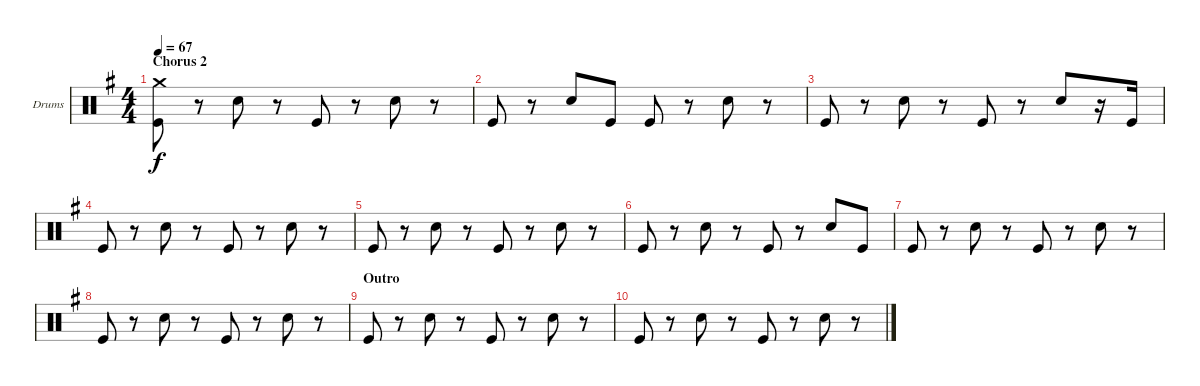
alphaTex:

\bracketExtendMode groupsimilarinstruments
\firstSystemTrackNameOrientation horizontal
\otherSystemsTrackNameOrientation horizontal
\track ("Drumkit" "Drums") {instrument percussion}
\staff {score}
\articulation defaults
\ts (4 4)
\section ("" "Chorus 2")
\tempo 67
\clef neutral
\ks g
("Kick (hit)" "Crash medium (hit)").8{dy f} r.8 "Snare (hit) 2".8 r.8 "Kick (hit)".8 r.8 "Snare (hit) 2".8 r.8 |
"Kick (hit)".8 r.8 "Snare (hit) 2".8 "Kick (hit)".8 "Kick (hit)".8 r.8 "Snare (hit) 2".8 r.8 |
"Kick (hit)".8 r.8 "Snare (hit) 2".8 r.8 "Kick (hit)".8 r.8 "Snare (hit) 2".8 r.16 "Kick (hit)".16 |
"Kick (hit)".8 r.8 "Snare (hit) 2".8 r.8 "Kick (hit)".8 r.8 "Snare (hit) 2".8 r.8 |
"Kick (hit)".8 r.8 "Snare (hit) 2".8 r.8 "Kick (hit)".8 r.8 "Snare (hit) 2".8 r.8 |
"Kick (hit)".8 r.8 "Snare (hit) 2".8 r.8 "Kick (hit)".8 r.8 "Snare (hit) 2".8 "Kick (hit)".8 |
"Kick (hit)".8 r.8 "Snare (hit) 2".8 r.8 "Kick (hit)".8 r.8 "Snare (hit) 2".8 r.8 |
"Kick (hit)".8 r.8 "Snare (hit) 2".8 r.8 "Kick (hit)".8 r.8 "Snare (hit) 2".8 r.8 |
\section ("" "Outro")
\scale
0.282178 "Kick (hit)".8 r.8 "Snare (hit) 2".8 r.8 "Kick (hit)".8 r.8 "Snare (hit) 2".8 r.8 |
\scale
0.282178 "Kick (hit)".8 r.8 "Snare (hit) 2".8 r.8 "Kick (hit)".8 r.8 "Snare (hit) 2".8 r.8
